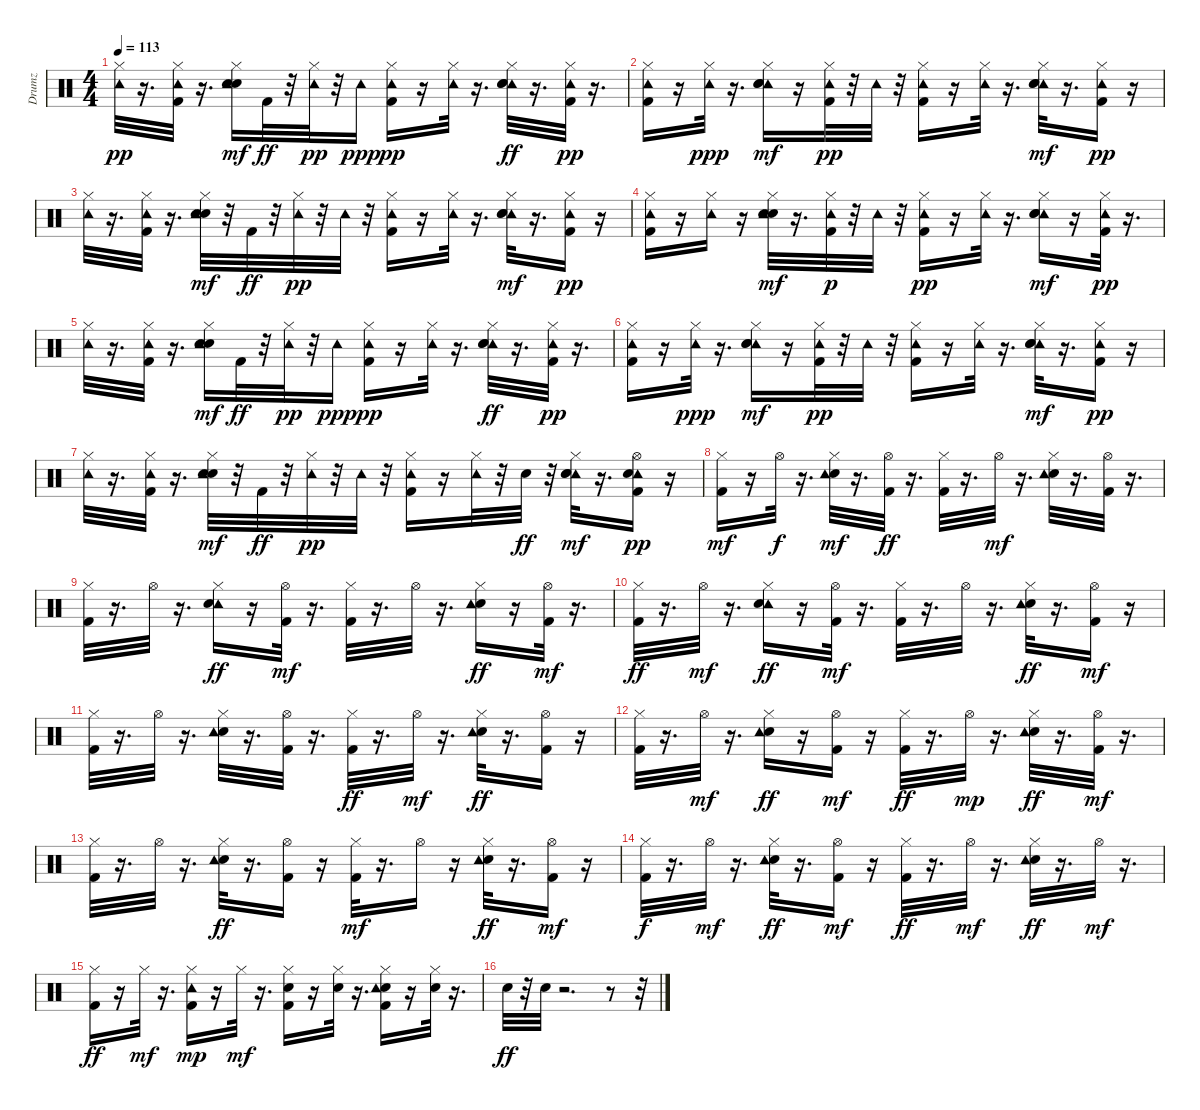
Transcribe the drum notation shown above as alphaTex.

\track ("Drumz" "Drumz") {instrument percussion}
\staff {score}
\articulation defaults
\ts (4 4)
\tempo 113
\clef neutral
\ks c
("Hi-Hat (closed)" "Tambourine (hit)").32{dy pp} r.16{d} ("Kick (hit) 2" "Hi-Hat (closed)" "Tambourine (hit)").32 r.16{d} ("Electric Snare (hit)" "Hand Clap (hit)" "Hi-Hat (closed)" "Tambourine (hit)").16{dy mf} "Kick (hit) 2".32{dy ff} r.32 ("Hi-Hat (closed)" "Tambourine (hit)").32{dy pp} r.32 "Tambourine (hit)".16{dy ppp} ("Hi-Hat (closed)" "Kick (hit) 2" "Tambourine (hit)").16{dy pp} r.16 ("Hi-Hat (closed)" "Tambourine (hit)").32 r.16{d} ("Tambourine (hit)" "Hi-Hat (closed)" "Hand Clap (hit)" "Electric Snare (hit)").32{dy ff} r.16{d} ("Hi-Hat (closed)" "Kick (hit) 2" "Tambourine (hit)").32{dy pp} r.16{d} |
("Hi-Hat (closed)" "Kick (hit) 2" "Tambourine (hit)").16 r.16 ("Hi-Hat (closed)" "Tambourine (hit)").32{dy ppp} r.16{d} ("Tambourine (hit)" "Electric Snare (hit)" "Hi-Hat (closed)" "Hand Clap (hit)").16{dy mf} r.16 ("Kick (hit) 2" "Hi-Hat (closed)" "Tambourine (hit)").32{dy pp} r.32 "Tambourine (hit)".32 r.32 ("Kick (hit) 2" "Hi-Hat (closed)" "Tambourine (hit)").16 r.16 ("Hi-Hat (closed)" "Tambourine (hit)").32 r.16{d} ("Tambourine (hit)" "Electric Snare (hit)" "Hi-Hat (closed)" "Hand Clap (hit)").32{dy mf} r.16{d} ("Hi-Hat (closed)" "Kick (hit) 2" "Tambourine (hit)").16{dy pp} r.16 |
("Hi-Hat (closed)" "Tambourine (hit)").32 r.16{d} ("Kick (hit) 2" "Hi-Hat (closed)" "Tambourine (hit)").32 r.16{d} ("Hand Clap (hit)" "Electric Snare (hit)" "Hi-Hat (closed)" "Tambourine (hit)").32{dy mf} r.32 "Kick (hit) 2".32{dy ff} r.32 ("Hi-Hat (closed)" "Tambourine (hit)").32{dy pp} r.32 "Tambourine (hit)".32 r.32 ("Kick (hit) 2" "Hi-Hat (closed)" "Tambourine (hit)").16 r.16 ("Hi-Hat (closed)" "Tambourine (hit)").32 r.16{d} ("Tambourine (hit)" "Hand Clap (hit)" "Electric Snare (hit)" "Hi-Hat (closed)").32{dy mf} r.16{d} ("Kick (hit) 2" "Hi-Hat (closed)" "Tambourine (hit)").16{dy pp} r.16 |
("Hi-Hat (closed)" "Kick (hit) 2" "Tambourine (hit)").16 r.16 ("Hi-Hat (closed)" "Tambourine (hit)").16 r.16 ("Electric Snare (hit)" "Hand Clap (hit)" "Hi-Hat (closed)" "Tambourine (hit)").32{dy mf} r.16{d} ("Hi-Hat (closed)" "Kick (hit) 2" "Tambourine (hit)").32{dy p} r.32 "Tambourine (hit)".32 r.32 ("Kick (hit) 2" "Hi-Hat (closed)" "Tambourine (hit)").16{dy pp} r.16 ("Hi-Hat (closed)" "Tambourine (hit)").32 r.16{d} ("Tambourine (hit)" "Electric Snare (hit)" "Hi-Hat (closed)" "Hand Clap (hit)").16{dy mf} r.16 ("Hi-Hat (closed)" "Kick (hit) 2" "Tambourine (hit)").32{dy pp} r.16{d} |
("Hi-Hat (closed)" "Tambourine (hit)").32 r.16{d} ("Kick (hit) 2" "Hi-Hat (closed)" "Tambourine (hit)").32 r.16{d} ("Electric Snare (hit)" "Hand Clap (hit)" "Hi-Hat (closed)" "Tambourine (hit)").16{dy mf} "Kick (hit) 2".32{dy ff} r.32 ("Hi-Hat (closed)" "Tambourine (hit)").32{dy pp} r.32 "Tambourine (hit)".16{dy ppp} ("Hi-Hat (closed)" "Kick (hit) 2" "Tambourine (hit)").16{dy pp} r.16 ("Hi-Hat (closed)" "Tambourine (hit)").32 r.16{d} ("Tambourine (hit)" "Hi-Hat (closed)" "Hand Clap (hit)" "Electric Snare (hit)").32{dy ff} r.16{d} ("Hi-Hat (closed)" "Kick (hit) 2" "Tambourine (hit)").32{dy pp} r.16{d} |
("Hi-Hat (closed)" "Kick (hit) 2" "Tambourine (hit)").16 r.16 ("Hi-Hat (closed)" "Tambourine (hit)").32{dy ppp} r.16{d} ("Tambourine (hit)" "Electric Snare (hit)" "Hi-Hat (closed)" "Hand Clap (hit)").16{dy mf} r.16 ("Kick (hit) 2" "Hi-Hat (closed)" "Tambourine (hit)").32{dy pp} r.32 "Tambourine (hit)".32 r.32 ("Kick (hit) 2" "Hi-Hat (closed)" "Tambourine (hit)").16 r.16 ("Hi-Hat (closed)" "Tambourine (hit)").32 r.16{d} ("Tambourine (hit)" "Electric Snare (hit)" "Hi-Hat (closed)" "Hand Clap (hit)").32{dy mf} r.16{d} ("Hi-Hat (closed)" "Kick (hit) 2" "Tambourine (hit)").16{dy pp} r.16 |
("Hi-Hat (closed)" "Tambourine (hit)").32 r.16{d} ("Kick (hit) 2" "Hi-Hat (closed)" "Tambourine (hit)").32 r.16{d} ("Hand Clap (hit)" "Electric Snare (hit)" "Hi-Hat (closed)" "Tambourine (hit)").32{dy mf} r.32 "Kick (hit) 2".32{dy ff} r.32 ("Hi-Hat (closed)" "Tambourine (hit)").32{dy pp} r.32 "Tambourine (hit)".32 r.32 ("Kick (hit) 2" "Hi-Hat (closed)" "Tambourine (hit)").16 r.16 ("Hi-Hat (closed)" "Tambourine (hit)").32 r.32 "Electric Snare (hit)".32{dy ff} r.32 ("Tambourine (hit)" "Hand Clap (hit)" "Electric Snare (hit)" "Hi-Hat (closed)").32{dy mf} r.16{d} ("Hi-Hat (open)" "Kick (hit) 2" "Tambourine (hit)" "Electric Snare (hit)").16{dy pp} r.16 |
("Kick (hit) 2" "Hi-Hat (closed)").16{dy mf volume 12} r.16 "Hi-Hat (open)".32{dy f} r.16{d} ("Electric Snare (hit)" "Hi-Hat (closed)" "Tambourine (hit)").32{dy mf} r.16{d} ("Kick (hit) 2" "Hi-Hat (open)").32{dy ff} r.16{d} ("Kick (hit) 2" "Hi-Hat (closed)").32 r.16{d} "Hi-Hat (open)".32{dy mf} r.16{d} ("Electric Snare (hit)" "Hi-Hat (closed)" "Tambourine (hit)").32 r.16{d} ("Kick (hit) 2" "Hi-Hat (open)").32 r.16{d} |
("Kick (hit) 2" "Hi-Hat (closed)").32 r.16{d} "Hi-Hat (open)".32 r.16{d} ("Tambourine (hit)" "Hi-Hat (closed)" "Electric Snare (hit)").16{dy ff} r.16 ("Kick (hit) 2" "Hi-Hat (open)").32{dy mf} r.16{d} ("Kick (hit) 2" "Hi-Hat (closed)").32 r.16{d} "Hi-Hat (open)".32 r.16{d} ("Hi-Hat (closed)" "Electric Snare (hit)" "Tambourine (hit)").16{dy ff} r.16 ("Kick (hit) 2" "Hi-Hat (open)").32{dy mf} r.16{d} |
("Kick (hit) 2" "Hi-Hat (closed)").32{dy ff} r.16{d} "Hi-Hat (open)".32{dy mf} r.16{d} ("Tambourine (hit)" "Hi-Hat (closed)" "Electric Snare (hit)").16{dy ff} r.16 ("Hi-Hat (open)" "Kick (hit) 2").32{dy mf} r.16{d} ("Kick (hit) 2" "Hi-Hat (closed)").32 r.16{d} "Hi-Hat (open)".32 r.16{d} ("Electric Snare (hit)" "Hi-Hat (closed)" "Tambourine (hit)").32{dy ff} r.16{d} ("Hi-Hat (open)" "Kick (hit) 2").16{dy mf} r.16 |
("Kick (hit) 2" "Hi-Hat (closed)").32 r.16{d} "Hi-Hat (open)".32 r.16{d} ("Electric Snare (hit)" "Hi-Hat (closed)" "Tambourine (hit)").32 r.16{d} ("Hi-Hat (open)" "Kick (hit) 2").32 r.16{d} ("Hi-Hat (closed)" "Kick (hit) 2").32{dy ff} r.16{d} "Hi-Hat (open)".32{dy mf} r.16{d} ("Hi-Hat (closed)" "Electric Snare (hit)" "Tambourine (hit)").32{dy ff} r.16{d} ("Hi-Hat (open)" "Kick (hit) 2").16 r.16 |
("Hi-Hat (closed)" "Kick (hit) 2").32 r.16{d} "Hi-Hat (open)".32{dy mf} r.16{d} ("Hi-Hat (closed)" "Electric Snare (hit)" "Tambourine (hit)").16{dy ff} r.16 ("Kick (hit) 2" "Hi-Hat (open)").16{dy mf} r.16 ("Kick (hit) 2" "Hi-Hat (closed)").32{dy ff} r.16{d} "Hi-Hat (open)".32{dy mp} r.16{d} ("Hi-Hat (closed)" "Electric Snare (hit)" "Tambourine (hit)").32{dy ff} r.16{d} ("Kick (hit) 2" "Hi-Hat (open)").32{dy mf} r.16{d} |
("Kick (hit) 2" "Hi-Hat (closed)").32 r.16{d} "Hi-Hat (open)".32 r.16{d} ("Electric Snare (hit)" "Hi-Hat (closed)" "Tambourine (hit)").32{dy ff} r.16{d} ("Hi-Hat (open)" "Kick (hit) 2").16 r.16 ("Kick (hit) 2" "Hi-Hat (closed)").32{dy mf} r.16{d} "Hi-Hat (open)".16 r.16 ("Electric Snare (hit)" "Hi-Hat (closed)" "Tambourine (hit)").32{dy ff} r.16{d} ("Hi-Hat (open)" "Kick (hit) 2").16{dy mf} r.16 |
("Hi-Hat (closed)" "Kick (hit) 2").32{dy f} r.16{d} "Hi-Hat (open)".32{dy mf} r.16{d} ("Hi-Hat (closed)" "Electric Snare (hit)" "Tambourine (hit)").32{dy ff} r.16{d} ("Hi-Hat (open)" "Kick (hit) 2").16{dy mf} r.16 ("Hi-Hat (closed)" "Kick (hit) 2").32{dy ff} r.16{d} "Hi-Hat (open)".32{dy mf} r.16{d} ("Hi-Hat (closed)" "Electric Snare (hit)" "Tambourine (hit)").32{dy ff} r.16{d} "Hi-Hat (open)".32{dy mf} r.16{d} |
("Kick (hit) 2" "Hi-Hat (closed)").16{dy ff} r.16 "Hi-Hat (closed)".32{dy mf} r.16{d} ("Kick (hit) 2" "Hi-Hat (closed)" "Tambourine (hit)").16{dy mp} r.16 "Hi-Hat (closed)".32{dy mf} r.16{d} ("Kick (hit) 2" "Electric Snare (hit)" "Hi-Hat (closed)").16 r.16 ("Electric Snare (hit)" "Hi-Hat (closed)").32 r.16{d} ("Kick (hit) 2" "Electric Snare (hit)" "Hi-Hat (closed)" "Tambourine (hit)").16 r.16 ("Electric Snare (hit)" "Hi-Hat (closed)").32 r.16{d} |
"Electric Snare (hit)".32{dy ff} r.32 "Electric Snare (hit)".32 r.2{d} r.8 r.32
